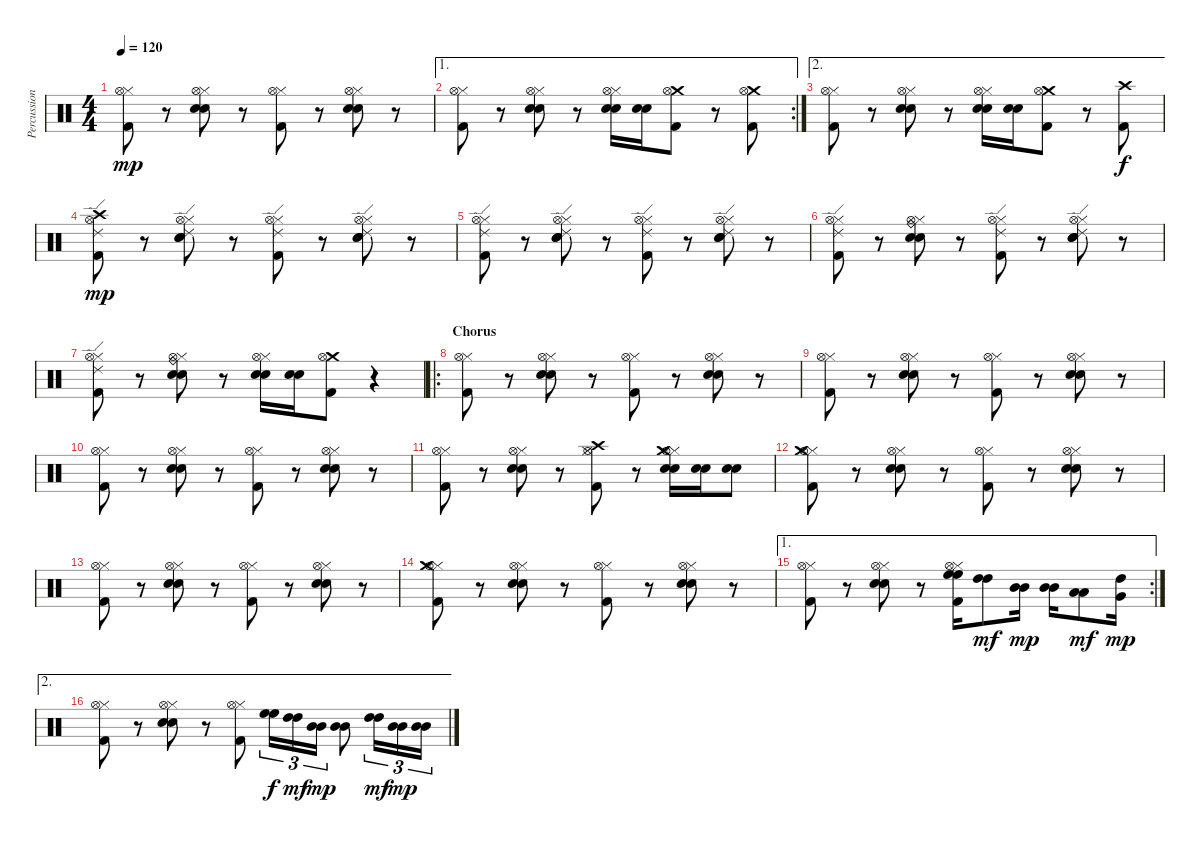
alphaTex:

\track ("Percussion" "Percussion") {instrument percussion}
\staff {score}
\articulation defaults
\ts (4 4)
\tempo 120
\clef neutral
\ks c
("Hi-Hat (closed)" "Hi-Hat (open)" "Kick (hit) 2").8{dy mp} r.8 ("Hi-Hat (closed)" "Hi-Hat (open)" "Electric Snare (hit)" "Snare (hit) 2").8 r.8 ("Hi-Hat (closed)" "Hi-Hat (open)" "Kick (hit) 2").8 r.8 ("Hi-Hat (closed)" "Hi-Hat (open)" "Electric Snare (hit)" "Snare (hit) 2").8 r.8 |
\ae 1
\rc 2
("Hi-Hat (closed)" "Hi-Hat (open)" "Kick (hit) 2").8 r.8 ("Hi-Hat (closed)" "Hi-Hat (open)" "Electric Snare (hit)" "Snare (hit) 2").8 r.8 ("Hi-Hat (closed)" "Hi-Hat (open)" "Electric Snare (hit)" "Snare (hit) 2").16 ("Electric Snare (hit)" "Snare (hit) 2").16 ("Crash medium (hit)" "Hi-Hat (open)" "Kick (hit) 2").8 r.8 ("Crash medium (hit)" "Hi-Hat (open)" "Kick (hit) 2").8 |
\ae 2
("Hi-Hat (closed)" "Hi-Hat (open)" "Kick (hit) 2").8 r.8 ("Hi-Hat (closed)" "Hi-Hat (open)" "Electric Snare (hit)" "Snare (hit) 2").8 r.8 ("Hi-Hat (closed)" "Hi-Hat (open)" "Electric Snare (hit)" "Snare (hit) 2").16 ("Electric Snare (hit)" "Snare (hit) 2").16 ("Crash medium (hit)" "Hi-Hat (open)" "Kick (hit) 2").8 r.8 ("Crash high (hit)" "Kick (hit) 2").8{dy f} |
("Crash high (hit)" "Hi-Hat (open)" "Ride (edge) 2" "Kick (hit) 2").8{dy mp} r.8 ("Hi-Hat (closed)" "Hi-Hat (open)" "Ride (edge) 2" "Electric Snare (hit)" "Snare (hit) 2").8 r.8 ("Hi-Hat (closed)" "Hi-Hat (open)" "Ride (edge) 2" "Kick (hit) 2").8 r.8 ("Hi-Hat (closed)" "Hi-Hat (open)" "Ride (edge) 2" "Electric Snare (hit)" "Snare (hit) 2").8 r.8 |
("Hi-Hat (closed)" "Hi-Hat (open)" "Ride (edge) 2" "Kick (hit) 2").8 r.8 ("Hi-Hat (closed)" "Hi-Hat (open)" "Ride (edge) 2" "Electric Snare (hit)" "Snare (hit) 2").8 r.8 ("Hi-Hat (closed)" "Hi-Hat (open)" "Ride (edge) 2" "Kick (hit) 2").8 r.8 ("Hi-Hat (closed)" "Hi-Hat (open)" "Ride (edge) 2" "Electric Snare (hit)" "Snare (hit) 2").8 r.8 |
("Hi-Hat (closed)" "Hi-Hat (open)" "Ride (edge) 2" "Kick (hit) 2").8 r.8 ("Hi-Hat (closed)" "Hi-Hat (open)" "Ride (bell)" "Electric Snare (hit)" "Snare (hit) 2").8 r.8 ("Hi-Hat (closed)" "Hi-Hat (open)" "Ride (edge) 2" "Kick (hit) 2").8 r.8 ("Hi-Hat (closed)" "Hi-Hat (open)" "Ride (edge) 2" "Electric Snare (hit)" "Snare (hit) 2").8 r.8 |
("Hi-Hat (closed)" "Hi-Hat (open)" "Ride (edge) 2" "Kick (hit) 2").8 r.8 ("Hi-Hat (closed)" "Hi-Hat (open)" "Ride (bell)" "Electric Snare (hit)" "Snare (hit) 2").8 r.8 ("Hi-Hat (closed)" "Hi-Hat (open)" "Electric Snare (hit)" "Snare (hit) 2").16 ("Electric Snare (hit)" "Snare (hit) 2").16 ("Crash medium (hit)" "Hi-Hat (open)" "Kick (hit) 2").8 r.4 |
\ro
\section ("" "Chorus")
("Hi-Hat (closed)" "Hi-Hat (open)" "Kick (hit) 2").8 r.8 ("Hi-Hat (closed)" "Hi-Hat (open)" "Electric Snare (hit)" "Snare (hit) 2").8 r.8 ("Hi-Hat (closed)" "Hi-Hat (open)" "Kick (hit) 2").8 r.8 ("Hi-Hat (closed)" "Hi-Hat (open)" "Electric Snare (hit)" "Snare (hit) 2").8 r.8 |
("Hi-Hat (closed)" "Hi-Hat (open)" "Kick (hit) 2").8 r.8 ("Hi-Hat (closed)" "Hi-Hat (open)" "Electric Snare (hit)" "Snare (hit) 2").8 r.8 ("Hi-Hat (closed)" "Hi-Hat (open)" "Kick (hit) 2").8 r.8 ("Hi-Hat (closed)" "Hi-Hat (open)" "Electric Snare (hit)" "Snare (hit) 2").8 r.8 |
("Hi-Hat (closed)" "Hi-Hat (open)" "Kick (hit) 2").8 r.8 ("Hi-Hat (closed)" "Hi-Hat (open)" "Electric Snare (hit)" "Snare (hit) 2").8 r.8 ("Hi-Hat (closed)" "Hi-Hat (open)" "Kick (hit) 2").8 r.8 ("Hi-Hat (closed)" "Hi-Hat (open)" "Electric Snare (hit)" "Snare (hit) 2").8 r.8 |
("Hi-Hat (closed)" "Hi-Hat (open)" "Kick (hit) 2").8 r.8 ("Hi-Hat (closed)" "Hi-Hat (open)" "Electric Snare (hit)" "Snare (hit) 2").8 r.8 ("Hi-Hat (closed)" "Hi-Hat (open)" "Crash high (hit)" "Kick (hit) 2").8 r.8 ("Hi-Hat (closed)" "Hi-Hat (open)" "Crash medium (hit)" "Electric Snare (hit)" "Snare (hit) 2").16 ("Electric Snare (hit)" "Snare (hit) 2").16 ("Electric Snare (hit)" "Snare (hit) 2").8 |
("Hi-Hat (closed)" "Hi-Hat (open)" "Crash medium (hit)" "Kick (hit) 2").8 r.8 ("Hi-Hat (closed)" "Hi-Hat (open)" "Electric Snare (hit)" "Snare (hit) 2").8 r.8 ("Hi-Hat (closed)" "Hi-Hat (open)" "Kick (hit) 2").8 r.8 ("Hi-Hat (closed)" "Hi-Hat (open)" "Electric Snare (hit)" "Snare (hit) 2").8 r.8 |
("Hi-Hat (closed)" "Hi-Hat (open)" "Kick (hit) 2").8 r.8 ("Hi-Hat (closed)" "Hi-Hat (open)" "Electric Snare (hit)" "Snare (hit) 2").8 r.8 ("Hi-Hat (closed)" "Hi-Hat (open)" "Kick (hit) 2").8 r.8 ("Hi-Hat (closed)" "Hi-Hat (open)" "Electric Snare (hit)" "Snare (hit) 2").8 r.8 |
("Hi-Hat (closed)" "Hi-Hat (open)" "Crash medium (hit)" "Kick (hit) 2").8 r.8 ("Hi-Hat (closed)" "Hi-Hat (open)" "Electric Snare (hit)" "Snare (hit) 2").8 r.8 ("Hi-Hat (closed)" "Hi-Hat (open)" "Kick (hit) 2").8 r.8 ("Hi-Hat (closed)" "Hi-Hat (open)" "Electric Snare (hit)" "Snare (hit) 2").8 r.8 |
\ae 1
\rc 2
("Hi-Hat (closed)" "Hi-Hat (open)" "Kick (hit) 2").8 r.8 ("Hi-Hat (closed)" "Hi-Hat (open)" "Electric Snare (hit)" "Snare (hit) 2").8 r.8 ("Hi-Hat (closed)" "Hi-Hat (open)" "High Floor Tom (hit)" "High Floor Tom (hit)" "Kick (hit) 2").16 ("High Tom (hit)" "High Tom (hit)").8{dy mf} ("Mid Tom (hit)" "Mid Tom (hit)").16{dy mp} ("Mid Tom (hit)" "Mid Tom (hit)").16 ("Low Tom (hit)" "Low Tom (hit)").8{dy mf} ("High Tom (hit)" "Very Low Tom (hit)").16{dy mp} |
\ae 2
("Hi-Hat (closed)" "Hi-Hat (open)" "Kick (hit) 2").8 r.8 ("Hi-Hat (closed)" "Hi-Hat (open)" "Electric Snare (hit)" "Snare (hit) 2").8 r.8 ("Hi-Hat (closed)" "Hi-Hat (open)" "Kick (hit) 2").8 ("High Floor Tom (hit)" "High Floor Tom (hit)").16{tu (3 2) dy f} ("High Tom (hit)" "High Tom (hit)").16{tu (3 2) dy mf} ("Mid Tom (hit)" "Mid Tom (hit)").16{tu (3 2) dy mp} ("Mid Tom (hit)" "Mid Tom (hit)").8 ("High Tom (hit)" "High Tom (hit)").16{tu (3 2) dy mf} ("Mid Tom (hit)" "Mid Tom (hit)").16{tu (3 2) dy mp} ("Mid Tom (hit)" "Mid Tom (hit)").16{tu (3 2)}
